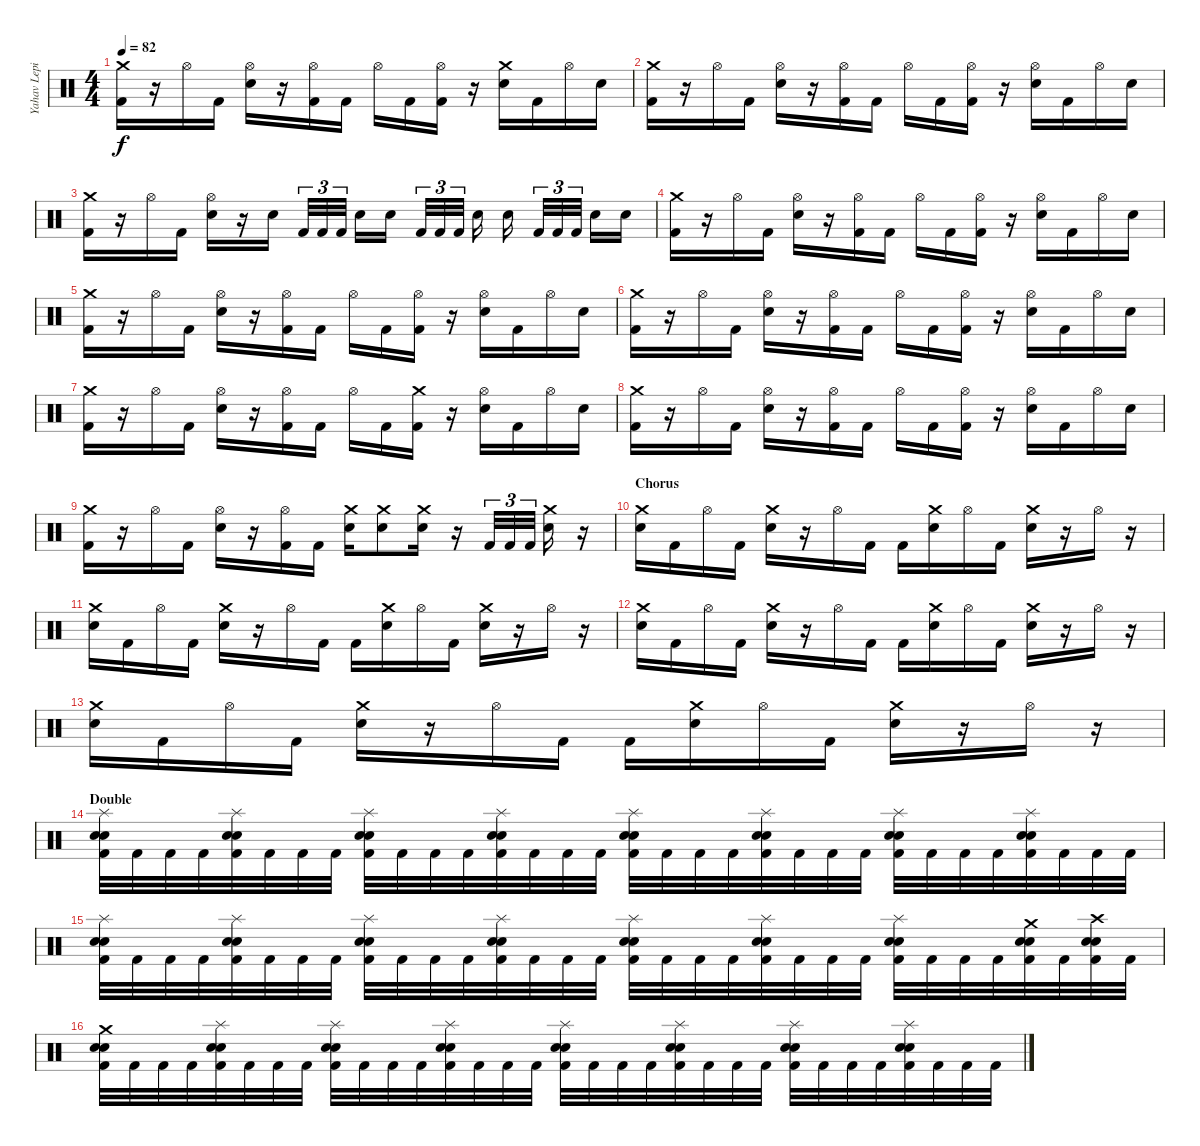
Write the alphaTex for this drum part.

\track ("Yahav Lepinsky" "Yahav Lepi") {instrument percussion}
\staff {score}
\articulation defaults
\ts (4 4)
\tempo 82
\clef neutral
\ks c
("Crash medium (hit)" "Kick (hit) 2").16{dy f} r.16 "Hi-Hat (open)".16 "Kick (hit) 2".16 ("Hi-Hat (open)" "Electric Snare (hit)").16 r.16 ("Hi-Hat (open)" "Kick (hit) 2").16 "Kick (hit) 2".16 "Hi-Hat (open)".16 "Kick (hit) 2".16 ("Hi-Hat (open)" "Kick (hit) 2").16 r.16 ("Crash medium (hit)" "Electric Snare (hit)").16 "Kick (hit) 2".16 "Hi-Hat (open)".16 "Electric Snare (hit)".16 |
("Crash medium (hit)" "Kick (hit) 2").16 r.16 "Hi-Hat (open)".16 "Kick (hit) 2".16 ("Hi-Hat (open)" "Electric Snare (hit)").16 r.16 ("Hi-Hat (open)" "Kick (hit) 2").16 "Kick (hit) 2".16 "Hi-Hat (open)".16 "Kick (hit) 2".16 ("Hi-Hat (open)" "Kick (hit) 2").16 r.16 ("Hi-Hat (open)" "Electric Snare (hit)").16 "Kick (hit) 2".16 "Hi-Hat (open)".16 "Electric Snare (hit)".16 |
("Crash medium (hit)" "Kick (hit) 2").16 r.16 "Hi-Hat (open)".16 "Kick (hit) 2".16 ("Hi-Hat (open)" "Electric Snare (hit)").16 r.16 "Electric Snare (hit)".16 "Kick (hit) 2".32{tu (3 2)} "Kick (hit) 2".32{tu (3 2)} "Kick (hit) 2".32{tu (3 2)} "Electric Snare (hit)".16 "Electric Snare (hit)".16 "Kick (hit) 2".32{tu (3 2)} "Kick (hit) 2".32{tu (3 2)} "Kick (hit) 2".32{tu (3 2)} "Electric Snare (hit)".16 "Electric Snare (hit)".16 "Kick (hit) 2".32{tu (3 2)} "Kick (hit) 2".32{tu (3 2)} "Kick (hit) 2".32{tu (3 2)} "Electric Snare (hit)".16 "Electric Snare (hit)".16 |
("Crash medium (hit)" "Kick (hit) 2").16 r.16 "Hi-Hat (open)".16 "Kick (hit) 2".16 ("Hi-Hat (open)" "Electric Snare (hit)").16 r.16 ("Hi-Hat (open)" "Kick (hit) 2").16 "Kick (hit) 2".16 "Hi-Hat (open)".16 "Kick (hit) 2".16 ("Hi-Hat (open)" "Kick (hit) 2").16 r.16 ("Hi-Hat (open)" "Electric Snare (hit)").16 "Kick (hit) 2".16 "Hi-Hat (open)".16 "Electric Snare (hit)".16 |
("Crash medium (hit)" "Kick (hit) 2").16 r.16 "Hi-Hat (open)".16 "Kick (hit) 2".16 ("Hi-Hat (open)" "Electric Snare (hit)").16 r.16 ("Hi-Hat (open)" "Kick (hit) 2").16 "Kick (hit) 2".16 "Hi-Hat (open)".16 "Kick (hit) 2".16 ("Hi-Hat (open)" "Kick (hit) 2").16 r.16 ("Hi-Hat (open)" "Electric Snare (hit)").16 "Kick (hit) 2".16 "Hi-Hat (open)".16 "Electric Snare (hit)".16 |
("Crash medium (hit)" "Kick (hit) 2").16 r.16 "Hi-Hat (open)".16 "Kick (hit) 2".16 ("Hi-Hat (open)" "Electric Snare (hit)").16 r.16 ("Hi-Hat (open)" "Kick (hit) 2").16 "Kick (hit) 2".16 "Hi-Hat (open)".16 "Kick (hit) 2".16 ("Hi-Hat (open)" "Kick (hit) 2").16 r.16 ("Hi-Hat (open)" "Electric Snare (hit)").16 "Kick (hit) 2".16 "Hi-Hat (open)".16 "Electric Snare (hit)".16 |
("Crash medium (hit)" "Kick (hit) 2").16 r.16 "Hi-Hat (open)".16 "Kick (hit) 2".16 ("Hi-Hat (open)" "Electric Snare (hit)").16 r.16 ("Hi-Hat (open)" "Kick (hit) 2").16 "Kick (hit) 2".16 "Hi-Hat (open)".16 "Kick (hit) 2".16 ("Crash medium (hit)" "Kick (hit) 2").16 r.16 ("Hi-Hat (open)" "Electric Snare (hit)").16 "Kick (hit) 2".16 "Hi-Hat (open)".16 "Electric Snare (hit)".16 |
("Crash medium (hit)" "Kick (hit) 2").16 r.16 "Hi-Hat (open)".16 "Kick (hit) 2".16 ("Hi-Hat (open)" "Electric Snare (hit)").16 r.16 ("Hi-Hat (open)" "Kick (hit) 2").16 "Kick (hit) 2".16 "Hi-Hat (open)".16 "Kick (hit) 2".16 ("Hi-Hat (open)" "Kick (hit) 2").16 r.16 ("Hi-Hat (open)" "Electric Snare (hit)").16 "Kick (hit) 2".16 "Hi-Hat (open)".16 "Electric Snare (hit)".16 |
("Crash medium (hit)" "Kick (hit) 2").16 r.16 "Hi-Hat (open)".16 "Kick (hit) 2".16 ("Hi-Hat (open)" "Electric Snare (hit)").16 r.16 ("Hi-Hat (open)" "Kick (hit) 2").16 "Kick (hit) 2".16 ("Crash medium (hit)" "Electric Snare (hit)").16 ("Crash medium (hit)" "Electric Snare (hit)").8 ("Crash medium (hit)" "Electric Snare (hit)").16 r.16 "Kick (hit) 2".32{tu (3 2)} "Kick (hit) 2".32{tu (3 2)} "Kick (hit) 2".32{tu (3 2)} ("Crash medium (hit)" "Electric Snare (hit)").16 r.16 |
\section ("" "Chorus")
("Crash medium (hit)" "Electric Snare (hit)").16 "Kick (hit) 2".16 "Hi-Hat (open)".16 "Kick (hit) 2".16 ("Crash medium (hit)" "Electric Snare (hit)").16 r.16 "Hi-Hat (open)".16 "Kick (hit) 2".16 "Kick (hit) 2".16 ("Crash medium (hit)" "Electric Snare (hit)").16 "Hi-Hat (open)".16 "Kick (hit) 2".16 ("Crash medium (hit)" "Electric Snare (hit)").16 r.16 "Hi-Hat (open)".16 r.16 |
("Crash medium (hit)" "Electric Snare (hit)").16 "Kick (hit) 2".16 "Hi-Hat (open)".16 "Kick (hit) 2".16 ("Crash medium (hit)" "Electric Snare (hit)").16 r.16 "Hi-Hat (open)".16 "Kick (hit) 2".16 "Kick (hit) 2".16 ("Crash medium (hit)" "Electric Snare (hit)").16 "Hi-Hat (open)".16 "Kick (hit) 2".16 ("Crash medium (hit)" "Electric Snare (hit)").16 r.16 "Hi-Hat (open)".16 r.16 |
("Crash medium (hit)" "Electric Snare (hit)").16 "Kick (hit) 2".16 "Hi-Hat (open)".16 "Kick (hit) 2".16 ("Crash medium (hit)" "Electric Snare (hit)").16 r.16 "Hi-Hat (open)".16 "Kick (hit) 2".16 "Kick (hit) 2".16 ("Crash medium (hit)" "Electric Snare (hit)").16 "Hi-Hat (open)".16 "Kick (hit) 2".16 ("Crash medium (hit)" "Electric Snare (hit)").16 r.16 "Hi-Hat (open)".16 r.16 |
("Crash medium (hit)" "Electric Snare (hit)").16 "Kick (hit) 2".16 "Hi-Hat (open)".16 "Kick (hit) 2".16 ("Crash medium (hit)" "Electric Snare (hit)").16 r.16 "Hi-Hat (open)".16 "Kick (hit) 2".16 "Kick (hit) 2".16 ("Crash medium (hit)" "Electric Snare (hit)").16 "Hi-Hat (open)".16 "Kick (hit) 2".16 ("Crash medium (hit)" "Electric Snare (hit)").16 r.16 "Hi-Hat (open)".16 r.16 |
\section ("" "Double")
("Splash (hit)" "Electric Snare (hit)" "Electric Snare (hit)" "Kick (hit) 2").32 "Kick (hit) 2".32 "Kick (hit) 2".32 "Kick (hit) 2".32 ("Splash (hit)" "Electric Snare (hit)" "Electric Snare (hit)" "Kick (hit) 2").32 "Kick (hit) 2".32 "Kick (hit) 2".32 "Kick (hit) 2".32 ("Splash (hit)" "Electric Snare (hit)" "Electric Snare (hit)" "Kick (hit) 2").32 "Kick (hit) 2".32 "Kick (hit) 2".32 "Kick (hit) 2".32 ("Splash (hit)" "Electric Snare (hit)" "Electric Snare (hit)" "Kick (hit) 2").32 "Kick (hit) 2".32 "Kick (hit) 2".32 "Kick (hit) 2".32 ("Splash (hit)" "Electric Snare (hit)" "Electric Snare (hit)" "Kick (hit) 2").32 "Kick (hit) 2".32 "Kick (hit) 2".32 "Kick (hit) 2".32 ("Splash (hit)" "Electric Snare (hit)" "Electric Snare (hit)" "Kick (hit) 2").32 "Kick (hit) 2".32 "Kick (hit) 2".32 "Kick (hit) 2".32 ("Splash (hit)" "Electric Snare (hit)" "Electric Snare (hit)" "Kick (hit) 2").32 "Kick (hit) 2".32 "Kick (hit) 2".32 "Kick (hit) 2".32 ("Splash (hit)" "Electric Snare (hit)" "Electric Snare (hit)" "Kick (hit) 2").32 "Kick (hit) 2".32 "Kick (hit) 2".32 "Kick (hit) 2".32 |
("Splash (hit)" "Electric Snare (hit)" "Electric Snare (hit)" "Kick (hit) 2").32 "Kick (hit) 2".32 "Kick (hit) 2".32 "Kick (hit) 2".32 ("Splash (hit)" "Electric Snare (hit)" "Electric Snare (hit)" "Kick (hit) 2").32 "Kick (hit) 2".32 "Kick (hit) 2".32 "Kick (hit) 2".32 ("Splash (hit)" "Electric Snare (hit)" "Electric Snare (hit)" "Kick (hit) 2").32 "Kick (hit) 2".32 "Kick (hit) 2".32 "Kick (hit) 2".32 ("Splash (hit)" "Electric Snare (hit)" "Electric Snare (hit)" "Kick (hit) 2").32 "Kick (hit) 2".32 "Kick (hit) 2".32 "Kick (hit) 2".32 ("Splash (hit)" "Electric Snare (hit)" "Electric Snare (hit)" "Kick (hit) 2").32 "Kick (hit) 2".32 "Kick (hit) 2".32 "Kick (hit) 2".32 ("Splash (hit)" "Electric Snare (hit)" "Electric Snare (hit)" "Kick (hit) 2").32 "Kick (hit) 2".32 "Kick (hit) 2".32 "Kick (hit) 2".32 ("Splash (hit)" "Electric Snare (hit)" "Electric Snare (hit)" "Kick (hit) 2").32 "Kick (hit) 2".32 "Kick (hit) 2".32 "Kick (hit) 2".32 ("Crash medium (hit)" "Electric Snare (hit)" "Electric Snare (hit)" "Kick (hit) 2").32 "Kick (hit) 2".32 ("Crash high (hit)" "Electric Snare (hit)" "Electric Snare (hit)" "Kick (hit) 2").32 "Kick (hit) 2".32 |
("Crash medium (hit)" "Electric Snare (hit)" "Electric Snare (hit)" "Kick (hit) 2").32 "Kick (hit) 2".32 "Kick (hit) 2".32 "Kick (hit) 2".32 ("Splash (hit)" "Electric Snare (hit)" "Electric Snare (hit)" "Kick (hit) 2").32 "Kick (hit) 2".32 "Kick (hit) 2".32 "Kick (hit) 2".32 ("Splash (hit)" "Electric Snare (hit)" "Electric Snare (hit)" "Kick (hit) 2").32 "Kick (hit) 2".32 "Kick (hit) 2".32 "Kick (hit) 2".32 ("Splash (hit)" "Electric Snare (hit)" "Electric Snare (hit)" "Kick (hit) 2").32 "Kick (hit) 2".32 "Kick (hit) 2".32 "Kick (hit) 2".32 ("Splash (hit)" "Electric Snare (hit)" "Electric Snare (hit)" "Kick (hit) 2").32 "Kick (hit) 2".32 "Kick (hit) 2".32 "Kick (hit) 2".32 ("Splash (hit)" "Electric Snare (hit)" "Electric Snare (hit)" "Kick (hit) 2").32 "Kick (hit) 2".32 "Kick (hit) 2".32 "Kick (hit) 2".32 ("Splash (hit)" "Electric Snare (hit)" "Electric Snare (hit)" "Kick (hit) 2").32 "Kick (hit) 2".32 "Kick (hit) 2".32 "Kick (hit) 2".32 ("Splash (hit)" "Electric Snare (hit)" "Electric Snare (hit)" "Kick (hit) 2").32 "Kick (hit) 2".32 "Kick (hit) 2".32 "Kick (hit) 2".32
